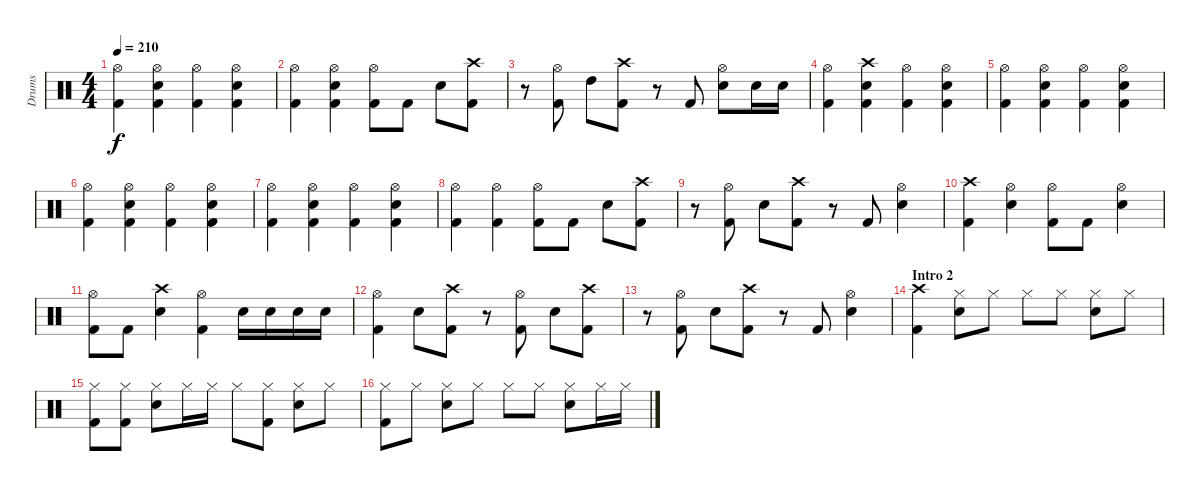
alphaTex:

\track ("Drums" "Drums") {instrument percussion}
\staff {score}
\articulation defaults
\ts (4 4)
\tempo 210
\clef neutral
\ks c
("Hi-Hat (open)" "Kick (hit) 2").4{dy f} ("Hi-Hat (open)" "Snare (hit) 2" "Kick (hit) 2").4 ("Hi-Hat (open)" "Kick (hit) 2").4 ("Hi-Hat (open)" "Snare (hit) 2" "Kick (hit) 2").4 |
("Hi-Hat (open)" "Kick (hit) 2").4 ("Hi-Hat (open)" "Snare (hit) 2" "Kick (hit) 2").4 ("Hi-Hat (open)" "Kick (hit) 2").8 "Kick (hit) 2".8 "Snare (hit) 2".8 ("Crash high (hit)" "Kick (hit) 2").8 |
r.8 ("Hi-Hat (open)" "Kick (hit) 2").8 "High Tom (hit)".8 ("Crash high (hit)" "Kick (hit) 2").8 r.8 "Kick (hit) 2".8 ("Hi-Hat (open)" "Snare (hit) 2").8 "Snare (hit) 2".16 "Snare (hit) 2".16 |
("Hi-Hat (open)" "Kick (hit) 2").4 ("Crash high (hit)" "Snare (hit) 2" "Kick (hit) 2").4 ("Hi-Hat (open)" "Kick (hit) 2").4 ("Hi-Hat (open)" "Snare (hit) 2" "Kick (hit) 2").4 |
("Hi-Hat (open)" "Kick (hit) 2").4 ("Hi-Hat (open)" "Snare (hit) 2" "Kick (hit) 2").4 ("Hi-Hat (open)" "Kick (hit) 2").4 ("Hi-Hat (open)" "Snare (hit) 2" "Kick (hit) 2").4 |
("Hi-Hat (open)" "Kick (hit) 2").4 ("Hi-Hat (open)" "Snare (hit) 2" "Kick (hit) 2").4 ("Hi-Hat (open)" "Kick (hit) 2").4 ("Hi-Hat (open)" "Snare (hit) 2" "Kick (hit) 2").4 |
("Hi-Hat (open)" "Kick (hit) 2").4 ("Hi-Hat (open)" "Snare (hit) 2" "Kick (hit) 2").4 ("Hi-Hat (open)" "Kick (hit) 2").4 ("Hi-Hat (open)" "Snare (hit) 2" "Kick (hit) 2").4 |
("Hi-Hat (open)" "Kick (hit) 2").4 ("Hi-Hat (open)" "Kick (hit) 2").4 ("Hi-Hat (open)" "Kick (hit) 2").8 "Kick (hit) 2".8 "Snare (hit) 2".8 ("Crash high (hit)" "Kick (hit) 2").8 |
r.8 ("Hi-Hat (open)" "Kick (hit) 2").8 "Snare (hit) 2".8 ("Crash high (hit)" "Kick (hit) 2").8 r.8 "Kick (hit) 2".8 ("Hi-Hat (open)" "Snare (hit) 2").4 |
("Crash high (hit)" "Kick (hit) 2").4 ("Hi-Hat (open)" "Snare (hit) 2").4 ("Hi-Hat (open)" "Kick (hit) 2").8 "Kick (hit) 2".8 ("Hi-Hat (open)" "Snare (hit) 2").4 |
("Hi-Hat (open)" "Kick (hit) 2").8 "Kick (hit) 2".8 ("Crash high (hit)" "Snare (hit) 2").4 ("Hi-Hat (open)" "Kick (hit) 2").4 "Snare (hit) 2".16 "Snare (hit) 2".16 "Snare (hit) 2".16 "Snare (hit) 2".16 |
("Hi-Hat (open)" "Kick (hit) 2").4 "Snare (hit) 2".8 ("Crash high (hit)" "Kick (hit) 2").8 r.8 ("Hi-Hat (open)" "Kick (hit) 2").8 "Snare (hit) 2".8 ("Crash high (hit)" "Kick (hit) 2").8 |
r.8 ("Hi-Hat (open)" "Kick (hit) 2").8 "Snare (hit) 2".8 ("Crash high (hit)" "Kick (hit) 2").8 r.8 "Kick (hit) 2".8 ("Hi-Hat (open)" "Snare (hit) 2").4 |
\section ("" "Intro 2")
("Crash high (hit)" "Kick (hit) 2").4 ("Hi-Hat (closed)" "Snare (hit) 2").8 "Hi-Hat (closed)".8 "Hi-Hat (closed)".8 "Hi-Hat (closed)".8 ("Hi-Hat (closed)" "Snare (hit) 2").8 "Hi-Hat (closed)".8 |
("Hi-Hat (closed)" "Kick (hit) 2").8 ("Hi-Hat (closed)" "Kick (hit) 2").8 ("Hi-Hat (closed)" "Snare (hit) 2").8 "Hi-Hat (closed)".16 "Hi-Hat (closed)".16 "Hi-Hat (closed)".8 ("Hi-Hat (closed)" "Kick (hit) 2").8 ("Hi-Hat (closed)" "Snare (hit) 2").8 "Hi-Hat (closed)".8 |
("Hi-Hat (closed)" "Kick (hit) 2").8 "Hi-Hat (closed)".8 ("Hi-Hat (closed)" "Snare (hit) 2").8 "Hi-Hat (closed)".8 "Hi-Hat (closed)".8 "Hi-Hat (closed)".8 ("Hi-Hat (closed)" "Snare (hit) 2").8 "Hi-Hat (closed)".16 "Hi-Hat (closed)".16
